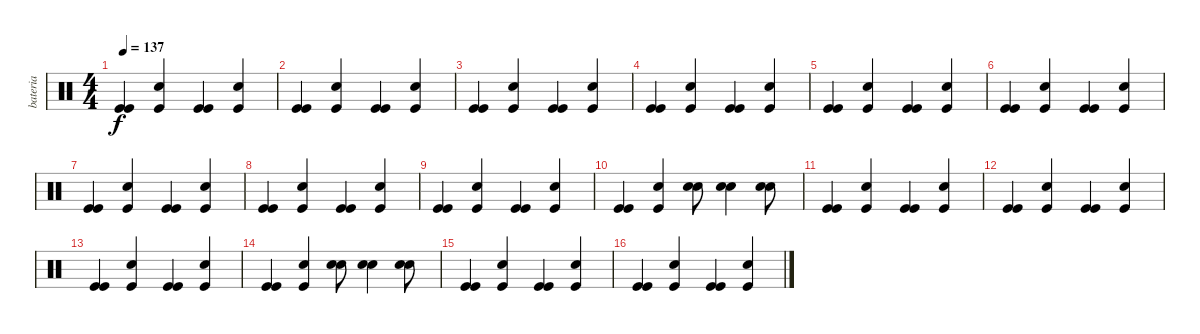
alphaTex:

\track ("bateria" "bateria") {instrument percussion}
\staff {score}
\articulation defaults
\ts (4 4)
\tempo 137
\clef neutral
\ks c
("Kick (hit)" "Kick (hit)").4{dy f} ("Kick (hit)" "Snare (hit) 2").4 ("Kick (hit)" "Kick (hit)").4 ("Snare (hit) 2" "Kick (hit)").4 |
("Kick (hit)" "Kick (hit)").4 ("Kick (hit)" "Snare (hit) 2").4 ("Kick (hit)" "Kick (hit)").4 ("Snare (hit) 2" "Kick (hit)").4 |
("Kick (hit)" "Kick (hit)").4 ("Kick (hit)" "Snare (hit) 2").4 ("Kick (hit)" "Kick (hit)").4 ("Snare (hit) 2" "Kick (hit)").4 |
("Kick (hit)" "Kick (hit)").4 ("Kick (hit)" "Snare (hit) 2").4 ("Kick (hit)" "Kick (hit)").4 ("Snare (hit) 2" "Kick (hit)").4 |
("Kick (hit)" "Kick (hit)").4 ("Kick (hit)" "Snare (hit) 2").4 ("Kick (hit)" "Kick (hit)").4 ("Snare (hit) 2" "Kick (hit)").4 |
("Kick (hit)" "Kick (hit)").4 ("Kick (hit)" "Snare (hit) 2").4 ("Kick (hit)" "Kick (hit)").4 ("Snare (hit) 2" "Kick (hit)").4 |
("Kick (hit)" "Kick (hit)").4 ("Kick (hit)" "Snare (hit) 2").4 ("Kick (hit)" "Kick (hit)").4 ("Snare (hit) 2" "Kick (hit)").4 |
("Kick (hit)" "Kick (hit)").4 ("Kick (hit)" "Snare (hit) 2").4 ("Kick (hit)" "Kick (hit)").4 ("Snare (hit) 2" "Kick (hit)").4 |
("Kick (hit)" "Kick (hit)").4 ("Kick (hit)" "Snare (hit) 2").4 ("Kick (hit)" "Kick (hit)").4 ("Snare (hit) 2" "Kick (hit)").4 |
("Kick (hit)" "Kick (hit)").4 ("Kick (hit)" "Snare (hit) 2").4 ("Snare (hit) 2" "Snare (hit) 2").8 ("Snare (hit) 2" "Snare (hit) 2").4 ("Snare (hit) 2" "Snare (hit) 2").8 |
("Kick (hit)" "Kick (hit)").4 ("Kick (hit)" "Snare (hit) 2").4 ("Kick (hit)" "Kick (hit)").4 ("Snare (hit) 2" "Kick (hit)").4 |
("Kick (hit)" "Kick (hit)").4 ("Kick (hit)" "Snare (hit) 2").4 ("Kick (hit)" "Kick (hit)").4 ("Snare (hit) 2" "Kick (hit)").4 |
("Kick (hit)" "Kick (hit)").4 ("Kick (hit)" "Snare (hit) 2").4 ("Kick (hit)" "Kick (hit)").4 ("Snare (hit) 2" "Kick (hit)").4 |
("Kick (hit)" "Kick (hit)").4 ("Kick (hit)" "Snare (hit) 2").4 ("Snare (hit) 2" "Snare (hit) 2").8 ("Snare (hit) 2" "Snare (hit) 2").4 ("Snare (hit) 2" "Snare (hit) 2").8 |
("Kick (hit)" "Kick (hit)").4 ("Kick (hit)" "Snare (hit) 2").4 ("Kick (hit)" "Kick (hit)").4 ("Snare (hit) 2" "Kick (hit)").4 |
("Kick (hit)" "Kick (hit)").4 ("Kick (hit)" "Snare (hit) 2").4 ("Kick (hit)" "Kick (hit)").4 ("Snare (hit) 2" "Kick (hit)").4
